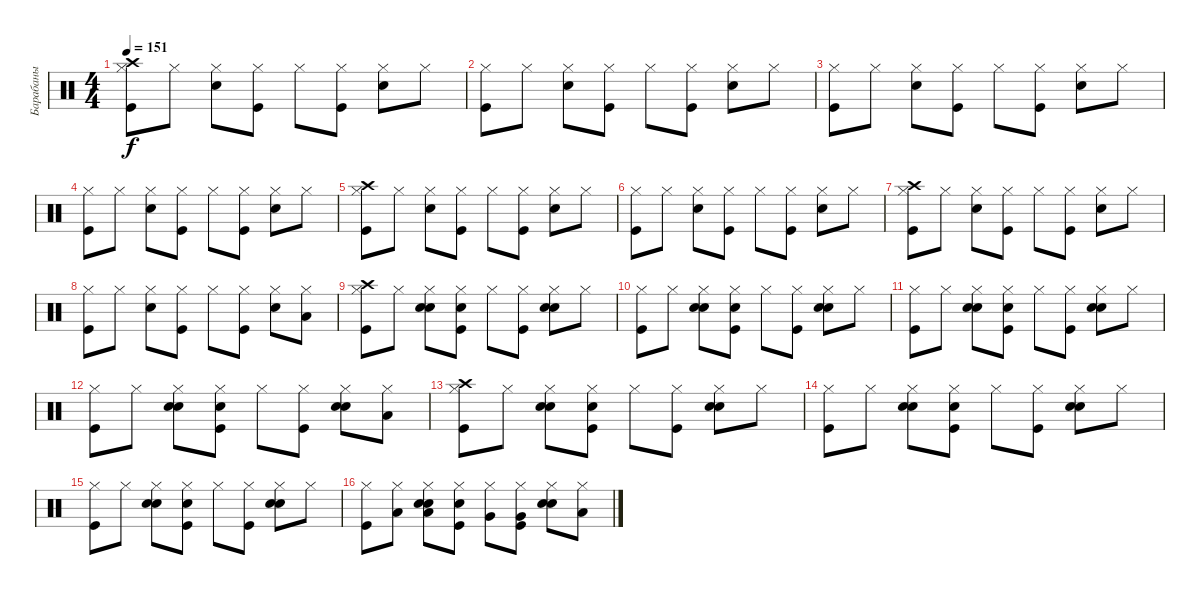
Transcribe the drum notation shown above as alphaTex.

\track ("Барабаны" "Барабаны") {instrument percussion}
\staff {score}
\articulation defaults
\ts (4 4)
\tempo 151
\clef neutral
\ks c
("Kick (hit)" "Hi-Hat (closed)" "Crash high (hit)").8{dy f} "Hi-Hat (closed)".8 ("Snare (hit) 2" "Hi-Hat (closed)").8 ("Kick (hit)" "Hi-Hat (closed)").8 "Hi-Hat (closed)".8 ("Kick (hit)" "Hi-Hat (closed)").8 ("Snare (hit) 2" "Hi-Hat (closed)").8 "Hi-Hat (closed)".8 |
("Kick (hit)" "Hi-Hat (closed)").8 "Hi-Hat (closed)".8 ("Snare (hit) 2" "Hi-Hat (closed)").8 ("Kick (hit)" "Hi-Hat (closed)").8 "Hi-Hat (closed)".8 ("Kick (hit)" "Hi-Hat (closed)").8 ("Snare (hit) 2" "Hi-Hat (closed)").8 "Hi-Hat (closed)".8 |
("Kick (hit)" "Hi-Hat (closed)").8 "Hi-Hat (closed)".8 ("Snare (hit) 2" "Hi-Hat (closed)").8 ("Kick (hit)" "Hi-Hat (closed)").8 "Hi-Hat (closed)".8 ("Kick (hit)" "Hi-Hat (closed)").8 ("Snare (hit) 2" "Hi-Hat (closed)").8 "Hi-Hat (closed)".8 |
("Kick (hit)" "Hi-Hat (closed)").8 "Hi-Hat (closed)".8 ("Snare (hit) 2" "Hi-Hat (closed)").8 ("Kick (hit)" "Hi-Hat (closed)").8 "Hi-Hat (closed)".8 ("Kick (hit)" "Hi-Hat (closed)").8 ("Snare (hit) 2" "Hi-Hat (closed)").8 "Hi-Hat (closed)".8 |
("Kick (hit)" "Hi-Hat (closed)" "Crash high (hit)").8 "Hi-Hat (closed)".8 ("Snare (hit) 2" "Hi-Hat (closed)").8 ("Kick (hit)" "Hi-Hat (closed)").8 "Hi-Hat (closed)".8 ("Kick (hit)" "Hi-Hat (closed)").8 ("Snare (hit) 2" "Hi-Hat (closed)").8 "Hi-Hat (closed)".8 |
("Kick (hit)" "Hi-Hat (closed)").8 "Hi-Hat (closed)".8 ("Snare (hit) 2" "Hi-Hat (closed)").8 ("Kick (hit)" "Hi-Hat (closed)").8 "Hi-Hat (closed)".8 ("Kick (hit)" "Hi-Hat (closed)").8 ("Snare (hit) 2" "Hi-Hat (closed)").8 "Hi-Hat (closed)".8 |
("Kick (hit)" "Hi-Hat (closed)" "Crash high (hit)").8 "Hi-Hat (closed)".8 ("Snare (hit) 2" "Hi-Hat (closed)").8 ("Kick (hit)" "Hi-Hat (closed)").8 "Hi-Hat (closed)".8 ("Kick (hit)" "Hi-Hat (closed)").8 ("Snare (hit) 2" "Hi-Hat (closed)").8 "Hi-Hat (closed)".8 |
("Kick (hit)" "Hi-Hat (closed)").8 "Hi-Hat (closed)".8 ("Snare (hit) 2" "Hi-Hat (closed)").8 ("Kick (hit)" "Hi-Hat (closed)").8 "Hi-Hat (closed)".8 ("Kick (hit)" "Hi-Hat (closed)").8 ("Snare (hit) 2" "Hi-Hat (closed)").8 ("Hi-Hat (closed)" "Low Floor Tom (hit)").8 |
("Kick (hit)" "Hi-Hat (closed)" "Crash high (hit)").8 "Hi-Hat (closed)".8 ("Snare (hit) 2" "Hi-Hat (closed)" "Hand Clap (hit)").8 ("Kick (hit)" "Hi-Hat (closed)" "Hand Clap (hit)").8 "Hi-Hat (closed)".8 ("Kick (hit)" "Hi-Hat (closed)").8 ("Snare (hit) 2" "Hi-Hat (closed)" "Hand Clap (hit)").8 "Hi-Hat (closed)".8 |
("Kick (hit)" "Hi-Hat (closed)").8 "Hi-Hat (closed)".8 ("Snare (hit) 2" "Hi-Hat (closed)" "Hand Clap (hit)").8 ("Kick (hit)" "Hi-Hat (closed)" "Hand Clap (hit)").8 "Hi-Hat (closed)".8 ("Kick (hit)" "Hi-Hat (closed)").8 ("Snare (hit) 2" "Hi-Hat (closed)" "Hand Clap (hit)").8 "Hi-Hat (closed)".8 |
("Kick (hit)" "Hi-Hat (closed)").8 "Hi-Hat (closed)".8 ("Snare (hit) 2" "Hi-Hat (closed)" "Hand Clap (hit)").8 ("Kick (hit)" "Hi-Hat (closed)" "Hand Clap (hit)").8 "Hi-Hat (closed)".8 ("Kick (hit)" "Hi-Hat (closed)").8 ("Snare (hit) 2" "Hi-Hat (closed)" "Hand Clap (hit)").8 "Hi-Hat (closed)".8 |
("Kick (hit)" "Hi-Hat (closed)").8 "Hi-Hat (closed)".8 ("Snare (hit) 2" "Hi-Hat (closed)" "Hand Clap (hit)").8 ("Kick (hit)" "Hi-Hat (closed)" "Hand Clap (hit)").8 "Hi-Hat (closed)".8 ("Kick (hit)" "Hi-Hat (closed)").8 ("Snare (hit) 2" "Hi-Hat (closed)" "Hand Clap (hit)").8 ("Hi-Hat (closed)" "Low Floor Tom (hit)").8 |
("Kick (hit)" "Hi-Hat (closed)" "Crash high (hit)").8 "Hi-Hat (closed)".8 ("Snare (hit) 2" "Hi-Hat (closed)" "Hand Clap (hit)").8 ("Kick (hit)" "Hi-Hat (closed)" "Hand Clap (hit)").8 "Hi-Hat (closed)".8 ("Kick (hit)" "Hi-Hat (closed)").8 ("Snare (hit) 2" "Hi-Hat (closed)" "Hand Clap (hit)").8 "Hi-Hat (closed)".8 |
("Kick (hit)" "Hi-Hat (closed)").8 "Hi-Hat (closed)".8 ("Snare (hit) 2" "Hi-Hat (closed)" "Hand Clap (hit)").8 ("Kick (hit)" "Hi-Hat (closed)" "Hand Clap (hit)").8 "Hi-Hat (closed)".8 ("Kick (hit)" "Hi-Hat (closed)").8 ("Snare (hit) 2" "Hi-Hat (closed)" "Hand Clap (hit)").8 "Hi-Hat (closed)".8 |
("Kick (hit)" "Hi-Hat (closed)").8 "Hi-Hat (closed)".8 ("Snare (hit) 2" "Hi-Hat (closed)" "Hand Clap (hit)").8 ("Kick (hit)" "Hi-Hat (closed)" "Hand Clap (hit)").8 "Hi-Hat (closed)".8 ("Kick (hit)" "Hi-Hat (closed)").8 ("Snare (hit) 2" "Hi-Hat (closed)" "Hand Clap (hit)").8 "Hi-Hat (closed)".8 |
("Kick (hit)" "Hi-Hat (closed)").8 ("Hi-Hat (closed)" "Low Tom (hit)").8 ("Snare (hit) 2" "Hi-Hat (closed)" "Hand Clap (hit)" "Low Tom (hit)").8 ("Kick (hit)" "Hi-Hat (closed)" "Hand Clap (hit)").8 ("Hi-Hat (closed)" "Very Low Tom (hit)").8 ("Kick (hit)" "Hi-Hat (closed)" "Very Low Tom (hit)").8 ("Snare (hit) 2" "Hi-Hat (closed)" "Hand Clap (hit)").8 ("Hi-Hat (closed)" "Low Floor Tom (hit)").8
